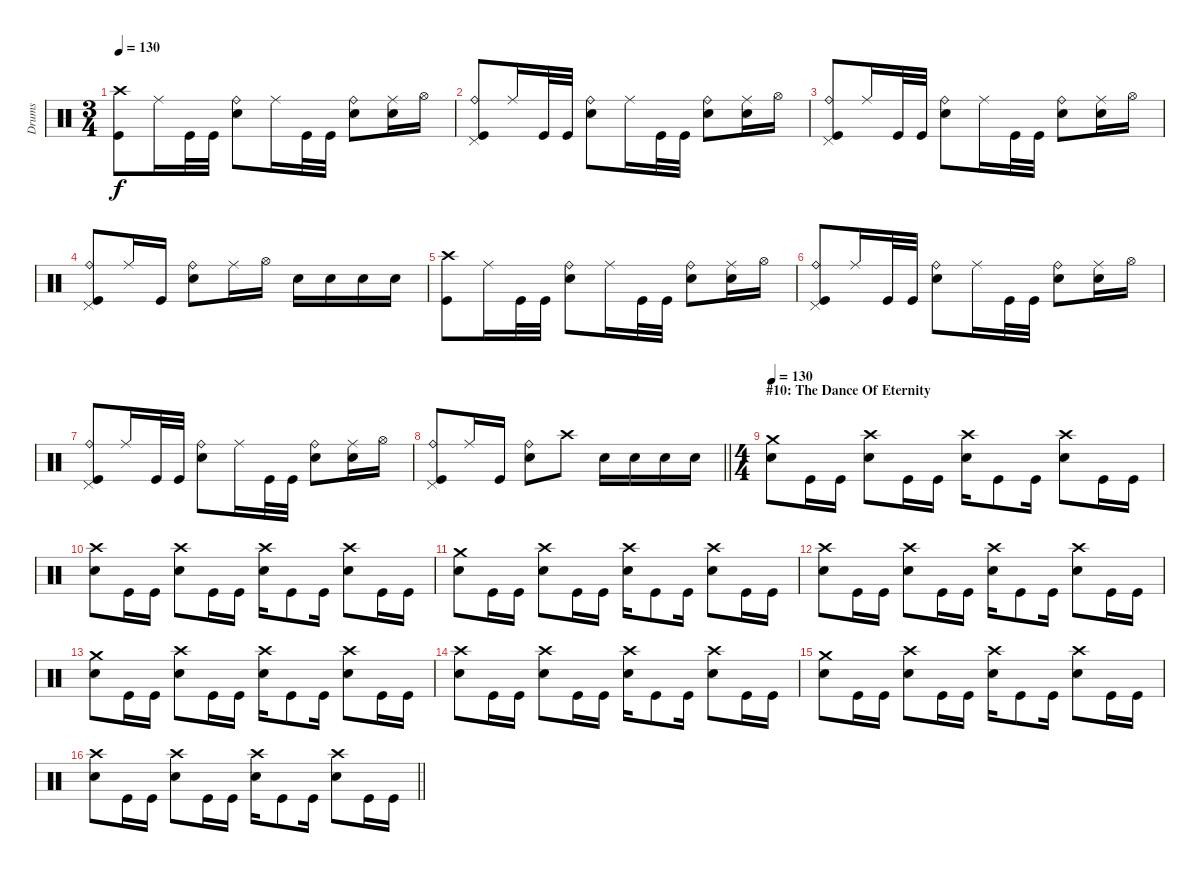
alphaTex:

\track ("Drums" "Drums") {instrument percussion}
\staff {score}
\articulation defaults
\ts (3 4)
\tempo 130
\clef neutral
\ks c
("Crash high (hit)" "Kick (hit)").8{dy f} "Ride (middle)".16 "Kick (hit)".32 "Kick (hit)".32 ("Ride (bell)" "Snare (hit) 2").8 "Ride (middle)".16 "Kick (hit)".32 "Kick (hit)".32 ("Ride (bell)" "Snare (hit) 2").8 ("Ride (middle)" "Snare (hit) 2").16 "Hi-Hat (open)".16 |
("Ride (bell)" "Pedal Hi-Hat (hit)" "Kick (hit)").8 "Ride (middle)".16 "Kick (hit)".32 "Kick (hit)".32 ("Ride (bell)" "Snare (hit) 2").8 "Ride (middle)".16 "Kick (hit)".32 "Kick (hit)".32 ("Ride (bell)" "Snare (hit) 2").8 ("Ride (middle)" "Snare (hit) 2").16 "Hi-Hat (open)".16 |
("Ride (bell)" "Pedal Hi-Hat (hit)" "Kick (hit)").8 "Ride (middle)".16 "Kick (hit)".32 "Kick (hit)".32 ("Ride (bell)" "Snare (hit) 2").8 "Ride (middle)".16 "Kick (hit)".32 "Kick (hit)".32 ("Ride (bell)" "Snare (hit) 2").8 ("Ride (middle)" "Snare (hit) 2").16 "Hi-Hat (open)".16 |
("Ride (bell)" "Pedal Hi-Hat (hit)" "Kick (hit)").8 "Ride (middle)".16 "Kick (hit)".16 ("Ride (bell)" "Snare (hit) 2").8 "Ride (middle)".16 "Hi-Hat (open)".16 "Snare (hit) 2".16 "Snare (hit) 2".16 "Snare (hit) 2".16 "Snare (hit) 2".16 |
("Crash high (hit)" "Kick (hit)").8 "Ride (middle)".16 "Kick (hit)".32 "Kick (hit)".32 ("Ride (bell)" "Snare (hit) 2").8 "Ride (middle)".16 "Kick (hit)".32 "Kick (hit)".32 ("Ride (bell)" "Snare (hit) 2").8 ("Ride (middle)" "Snare (hit) 2").16 "Hi-Hat (open)".16 |
("Ride (bell)" "Pedal Hi-Hat (hit)" "Kick (hit)").8 "Ride (middle)".16 "Kick (hit)".32 "Kick (hit)".32 ("Ride (bell)" "Snare (hit) 2").8 "Ride (middle)".16 "Kick (hit)".32 "Kick (hit)".32 ("Ride (bell)" "Snare (hit) 2").8 ("Ride (middle)" "Snare (hit) 2").16 "Hi-Hat (open)".16 |
("Ride (bell)" "Pedal Hi-Hat (hit)" "Kick (hit)").8 "Ride (middle)".16 "Kick (hit)".32 "Kick (hit)".32 ("Ride (bell)" "Snare (hit) 2").8 "Ride (middle)".16 "Kick (hit)".32 "Kick (hit)".32 ("Ride (bell)" "Snare (hit) 2").8 ("Ride (middle)" "Snare (hit) 2").16 "Hi-Hat (open)".16 |
\barLineRight lightlight
("Ride (bell)" "Pedal Hi-Hat (hit)" "Kick (hit)").8 "Ride (middle)".16 "Kick (hit)".16 ("Ride (bell)" "Snare (hit) 2").8 "Crash high (hit)".8 "Snare (hit) 2".16 "Snare (hit) 2".16 "Snare (hit) 2".16 "Snare (hit) 2".16 |
\ts (4 4)
\section ("" "#10: The Dance Of Eternity")
\tempo 130
("Crash medium (hit)" "Snare (hit) 2").8 "Kick (hit)".16 "Kick (hit)".16 ("Crash high (hit)" "Snare (hit) 2").8 "Kick (hit)".16 "Kick (hit)".16 ("Crash high (hit)" "Snare (hit) 2").16 "Kick (hit)".8 "Kick (hit)".16 ("Crash high (hit)" "Snare (hit) 2").8 "Kick (hit)".16 "Kick (hit)".16 |
("Crash high (hit)" "Snare (hit) 2").8 "Kick (hit)".16 "Kick (hit)".16 ("Crash high (hit)" "Snare (hit) 2").8 "Kick (hit)".16 "Kick (hit)".16 ("Crash high (hit)" "Snare (hit) 2").16 "Kick (hit)".8 "Kick (hit)".16 ("Crash high (hit)" "Snare (hit) 2").8 "Kick (hit)".16 "Kick (hit)".16 |
("Crash medium (hit)" "Snare (hit) 2").8 "Kick (hit)".16 "Kick (hit)".16 ("Crash high (hit)" "Snare (hit) 2").8 "Kick (hit)".16 "Kick (hit)".16 ("Crash high (hit)" "Snare (hit) 2").16 "Kick (hit)".8 "Kick (hit)".16 ("Crash high (hit)" "Snare (hit) 2").8 "Kick (hit)".16 "Kick (hit)".16 |
("Crash high (hit)" "Snare (hit) 2").8 "Kick (hit)".16 "Kick (hit)".16 ("Crash high (hit)" "Snare (hit) 2").8 "Kick (hit)".16 "Kick (hit)".16 ("Crash high (hit)" "Snare (hit) 2").16 "Kick (hit)".8 "Kick (hit)".16 ("Crash high (hit)" "Snare (hit) 2").8 "Kick (hit)".16 "Kick (hit)".16 |
("Crash medium (hit)" "Snare (hit) 2").8 "Kick (hit)".16 "Kick (hit)".16 ("Crash high (hit)" "Snare (hit) 2").8 "Kick (hit)".16 "Kick (hit)".16 ("Crash high (hit)" "Snare (hit) 2").16 "Kick (hit)".8 "Kick (hit)".16 ("Crash high (hit)" "Snare (hit) 2").8 "Kick (hit)".16 "Kick (hit)".16 |
("Crash high (hit)" "Snare (hit) 2").8 "Kick (hit)".16 "Kick (hit)".16 ("Crash high (hit)" "Snare (hit) 2").8 "Kick (hit)".16 "Kick (hit)".16 ("Crash high (hit)" "Snare (hit) 2").16 "Kick (hit)".8 "Kick (hit)".16 ("Crash high (hit)" "Snare (hit) 2").8 "Kick (hit)".16 "Kick (hit)".16 |
("Crash medium (hit)" "Snare (hit) 2").8 "Kick (hit)".16 "Kick (hit)".16 ("Crash high (hit)" "Snare (hit) 2").8 "Kick (hit)".16 "Kick (hit)".16 ("Crash high (hit)" "Snare (hit) 2").16 "Kick (hit)".8 "Kick (hit)".16 ("Crash high (hit)" "Snare (hit) 2").8 "Kick (hit)".16 "Kick (hit)".16 |
\barLineRight lightlight
("Crash high (hit)" "Snare (hit) 2").8 "Kick (hit)".16 "Kick (hit)".16 ("Crash high (hit)" "Snare (hit) 2").8 "Kick (hit)".16 "Kick (hit)".16 ("Crash high (hit)" "Snare (hit) 2").16 "Kick (hit)".8 "Kick (hit)".16 ("Crash high (hit)" "Snare (hit) 2").8 "Kick (hit)".16 "Kick (hit)".16
